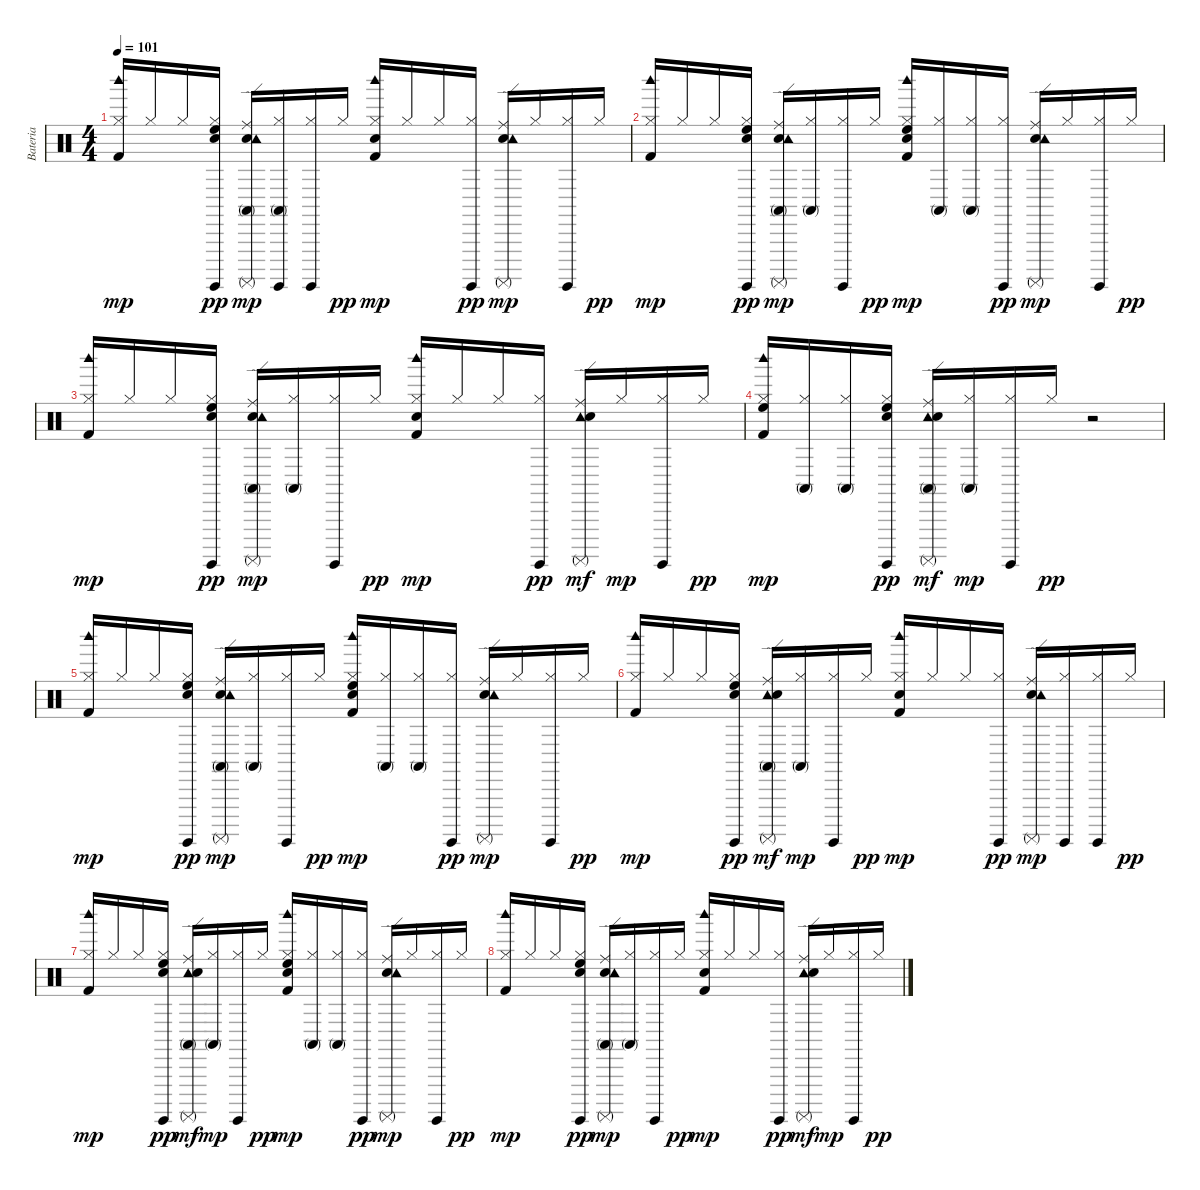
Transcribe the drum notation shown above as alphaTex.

\track ("Bateria" "Bateria") {instrument percussion}
\staff {score}
\articulation defaults
\ts (4 4)
\tempo 101
\clef neutral
\ks c
("Kick (hit) 2" "Hi-Hat (closed)" "Woodblock high (hit)").16{dy mp} "Hi-Hat (closed)".16 "Hi-Hat (closed)".16 ("High Floor Tom (hit)" "Snare (hit)" "Surdo (hit)" "Hi-Hat (closed)").16{dy pp} ("Conga high (mute)" "Ride (edge)" "Electric Snare (hit)" "Surdo (mute)" "Tambourine (hit)").16{dy mp} ("Conga high (mute)" "Surdo (hit)" "Hi-Hat (closed)").16 ("Surdo (hit)" "Hi-Hat (closed)").16 "Hi-Hat (closed)".16{dy pp} ("Snare (hit)" "Kick (hit) 2" "Hi-Hat (closed)" "Woodblock high (hit)").16{dy mp} "Hi-Hat (closed)".16 "Hi-Hat (closed)".16 ("Surdo (hit)" "Hi-Hat (closed)").16{dy pp} ("Ride (edge)" "Electric Snare (hit)" "Surdo (mute)" "Tambourine (hit)").16{dy mp} "Hi-Hat (closed)".16 ("Surdo (hit)" "Hi-Hat (closed)").16 "Hi-Hat (closed)".16{dy pp} |
("Kick (hit) 2" "Hi-Hat (closed)" "Woodblock high (hit)").16{dy mp} "Hi-Hat (closed)".16 "Hi-Hat (closed)".16 ("High Floor Tom (hit)" "Snare (hit)" "Surdo (hit)" "Hi-Hat (closed)").16{dy pp} ("Conga high (mute)" "Ride (edge)" "Electric Snare (hit)" "Surdo (mute)" "Tambourine (hit)").16{dy mp} ("Conga high (mute)" "Hi-Hat (closed)").16 ("Surdo (hit)" "Hi-Hat (closed)").16 "Hi-Hat (closed)".16{dy pp} ("High Floor Tom (hit)" "Snare (hit)" "Kick (hit) 2" "Hi-Hat (closed)" "Woodblock high (hit)").16{dy mp} ("Conga high (mute)" "Hi-Hat (closed)").16 ("Conga high (mute)" "Hi-Hat (closed)").16 ("Surdo (hit)" "Hi-Hat (closed)").16{dy pp} ("Ride (edge)" "Electric Snare (hit)" "Surdo (mute)" "Tambourine (hit)").16{dy mp} "Hi-Hat (closed)".16 ("Surdo (hit)" "Hi-Hat (closed)").16 "Hi-Hat (closed)".16{dy pp} |
("Kick (hit) 2" "Hi-Hat (closed)" "Woodblock high (hit)").16{dy mp} "Hi-Hat (closed)".16 "Hi-Hat (closed)".16 ("High Floor Tom (hit)" "Snare (hit)" "Surdo (hit)" "Hi-Hat (closed)").16{dy pp} ("Conga high (mute)" "Ride (edge)" "Electric Snare (hit)" "Surdo (mute)" "Tambourine (hit)").16{dy mp} ("Conga high (mute)" "Hi-Hat (closed)").16 ("Surdo (hit)" "Hi-Hat (closed)").16 "Hi-Hat (closed)".16{dy pp} ("Snare (hit)" "Woodblock high (hit)" "Kick (hit) 2" "Hi-Hat (closed)").16{dy mp} "Hi-Hat (closed)".16 "Hi-Hat (closed)".16 ("Surdo (hit)" "Hi-Hat (closed)").16{dy pp} ("Ride (edge)" "Surdo (mute)" "Tambourine (hit)" "Electric Snare (hit)").16{dy mf} "Hi-Hat (closed)".16{dy mp} ("Surdo (hit)" "Hi-Hat (closed)").16 "Hi-Hat (closed)".16{dy pp} |
("High Floor Tom (hit)" "Woodblock high (hit)" "Kick (hit) 2" "Hi-Hat (closed)").16{dy mp} ("Conga high (mute)" "Hi-Hat (closed)").16 ("Conga high (mute)" "Hi-Hat (closed)").16 ("High Floor Tom (hit)" "Snare (hit)" "Surdo (hit)" "Hi-Hat (closed)").16{dy pp} ("Conga high (mute)" "Ride (edge)" "Tambourine (hit)" "Electric Snare (hit)" "Surdo (mute)").16{dy mf} ("Conga high (mute)" "Hi-Hat (closed)").16{dy mp} ("Surdo (hit)" "Hi-Hat (closed)").16 "Hi-Hat (closed)".16{dy pp} r.2 |
("Hi-Hat (closed)" "Woodblock high (hit)" "Kick (hit) 2").16{dy mp} "Hi-Hat (closed)".16 "Hi-Hat (closed)".16 ("High Floor Tom (hit)" "Snare (hit)" "Surdo (hit)" "Hi-Hat (closed)").16{dy pp} ("Conga high (mute)" "Ride (edge)" "Electric Snare (hit)" "Surdo (mute)" "Tambourine (hit)").16{dy mp} ("Conga high (mute)" "Hi-Hat (closed)").16 ("Surdo (hit)" "Hi-Hat (closed)").16 "Hi-Hat (closed)".16{dy pp} ("High Floor Tom (hit)" "Snare (hit)" "Hi-Hat (closed)" "Woodblock high (hit)" "Kick (hit) 2").16{dy mp} ("Conga high (mute)" "Hi-Hat (closed)").16 ("Conga high (mute)" "Hi-Hat (closed)").16 ("Surdo (hit)" "Hi-Hat (closed)").16{dy pp} ("Ride (edge)" "Electric Snare (hit)" "Surdo (mute)" "Tambourine (hit)").16{dy mp} "Hi-Hat (closed)".16 ("Surdo (hit)" "Hi-Hat (closed)").16 "Hi-Hat (closed)".16{dy pp} |
("Kick (hit) 2" "Hi-Hat (closed)" "Woodblock high (hit)").16{dy mp} "Hi-Hat (closed)".16 "Hi-Hat (closed)".16 ("High Floor Tom (hit)" "Snare (hit)" "Surdo (hit)" "Hi-Hat (closed)").16{dy pp} ("Conga high (mute)" "Ride (edge)" "Surdo (mute)" "Tambourine (hit)" "Electric Snare (hit)").16{dy mf} ("Conga high (mute)" "Hi-Hat (closed)").16{dy mp} ("Surdo (hit)" "Hi-Hat (closed)").16 "Hi-Hat (closed)".16{dy pp} ("Snare (hit)" "Kick (hit) 2" "Hi-Hat (closed)" "Woodblock high (hit)").16{dy mp} "Hi-Hat (closed)".16 "Hi-Hat (closed)".16 ("Surdo (hit)" "Hi-Hat (closed)").16{dy pp} ("Ride (edge)" "Electric Snare (hit)" "Surdo (mute)" "Tambourine (hit)").16{dy mp} ("Surdo (hit)" "Hi-Hat (closed)").16 ("Surdo (hit)" "Hi-Hat (closed)").16 "Hi-Hat (closed)".16{dy pp} |
("Kick (hit) 2" "Hi-Hat (closed)" "Woodblock high (hit)").16{dy mp} "Hi-Hat (closed)".16 "Hi-Hat (closed)".16 ("High Floor Tom (hit)" "Snare (hit)" "Surdo (hit)" "Hi-Hat (closed)").16{dy pp} ("Conga high (mute)" "Ride (edge)" "Tambourine (hit)" "Electric Snare (hit)" "Surdo (mute)").16{dy mf} ("Conga high (mute)" "Hi-Hat (closed)").16{dy mp} ("Surdo (hit)" "Hi-Hat (closed)").16 "Hi-Hat (closed)".16{dy pp} ("High Floor Tom (hit)" "Snare (hit)" "Kick (hit) 2" "Hi-Hat (closed)" "Woodblock high (hit)").16{dy mp} ("Conga high (mute)" "Hi-Hat (closed)").16 ("Conga high (mute)" "Hi-Hat (closed)").16 ("Surdo (hit)" "Hi-Hat (closed)").16{dy pp} ("Ride (edge)" "Electric Snare (hit)" "Surdo (mute)" "Tambourine (hit)").16{dy mp} "Hi-Hat (closed)".16 ("Surdo (hit)" "Hi-Hat (closed)").16 "Hi-Hat (closed)".16{dy pp} |
("Kick (hit) 2" "Hi-Hat (closed)" "Woodblock high (hit)").16{dy mp} "Hi-Hat (closed)".16 "Hi-Hat (closed)".16 ("High Floor Tom (hit)" "Snare (hit)" "Surdo (hit)" "Hi-Hat (closed)").16{dy pp} ("Conga high (mute)" "Ride (edge)" "Electric Snare (hit)" "Surdo (mute)" "Tambourine (hit)").16{dy mp} ("Conga high (mute)" "Hi-Hat (closed)").16 ("Surdo (hit)" "Hi-Hat (closed)").16 "Hi-Hat (closed)".16{dy pp} ("Snare (hit)" "Hi-Hat (closed)" "Woodblock high (hit)" "Kick (hit) 2").16{dy mp} "Hi-Hat (closed)".16 "Hi-Hat (closed)".16 ("Surdo (hit)" "Hi-Hat (closed)").16{dy pp} ("Ride (edge)" "Surdo (mute)" "Tambourine (hit)" "Electric Snare (hit)").16{dy mf} "Hi-Hat (closed)".16{dy mp} ("Surdo (hit)" "Hi-Hat (closed)").16 "Hi-Hat (closed)".16{dy pp}
